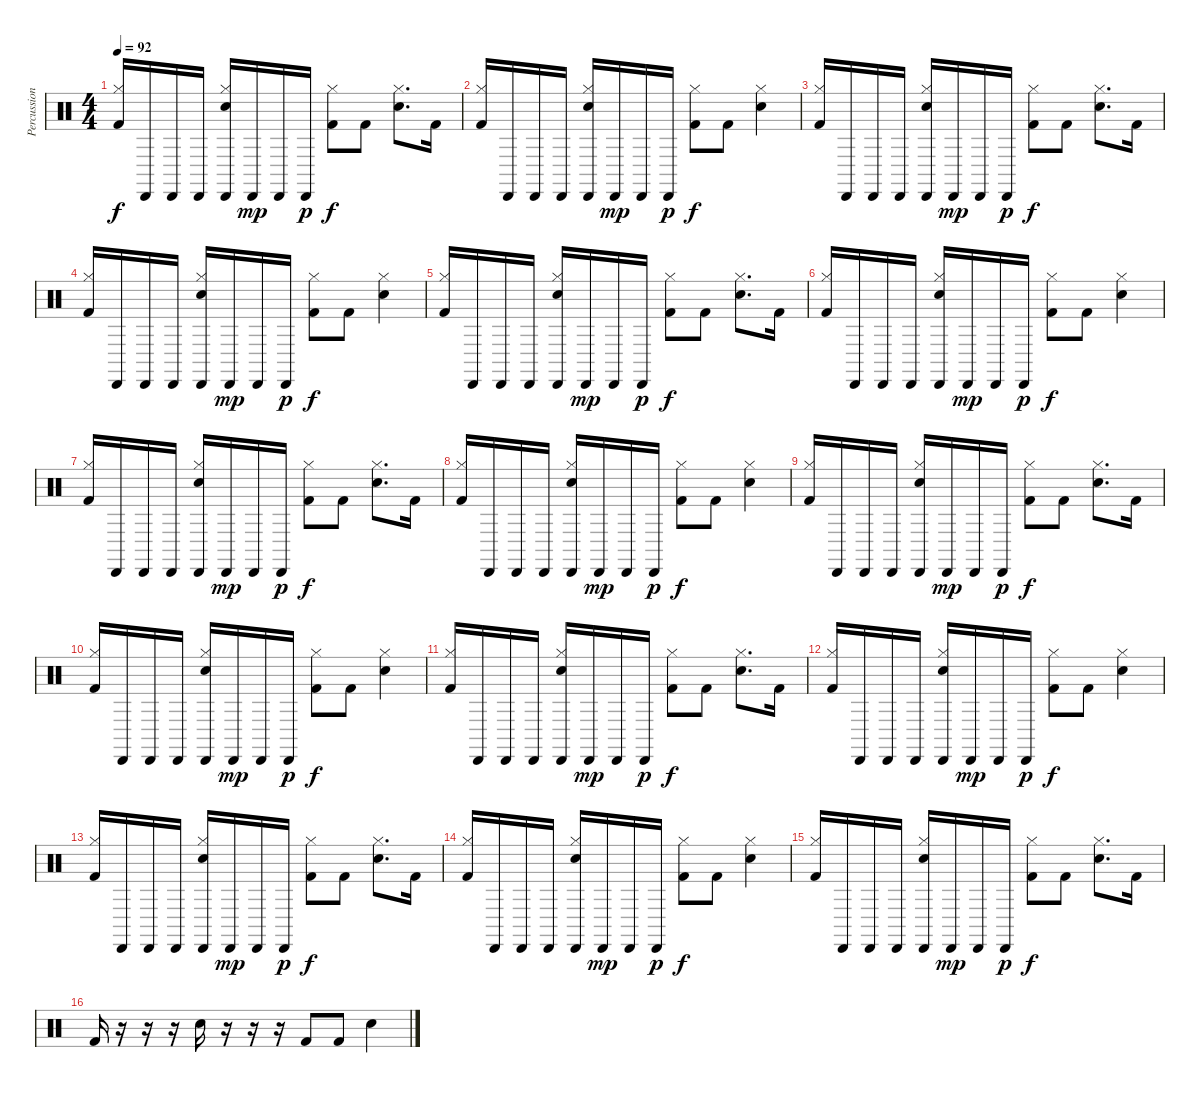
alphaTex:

\track ("Percussion" "Percussion") {instrument percussion}
\staff {score}
\articulation defaults
\ts (4 4)
\tempo 92
\clef neutral
\ks c
("Hi-Hat (closed)" "Kick (hit) 2").16{dy f} "Cabasa (hit)".16 "Cabasa (hit)".16 "Cabasa (hit)".16 ("Cabasa (hit)" "Hi-Hat (closed)" "Electric Snare (hit)").16 "Cabasa (hit)".16{dy mp} "Cabasa (hit)".16 "Cabasa (hit)".16{dy p} ("Hi-Hat (closed)" "Kick (hit) 2").8{dy f} "Kick (hit) 2".8 ("Hi-Hat (closed)" "Electric Snare (hit)").8{d} "Kick (hit) 2".16 |
("Hi-Hat (closed)" "Kick (hit) 2").16 "Cabasa (hit)".16 "Cabasa (hit)".16 "Cabasa (hit)".16 ("Cabasa (hit)" "Hi-Hat (closed)" "Electric Snare (hit)").16 "Cabasa (hit)".16{dy mp} "Cabasa (hit)".16 "Cabasa (hit)".16{dy p} ("Hi-Hat (closed)" "Kick (hit) 2").8{dy f} "Kick (hit) 2".8 ("Hi-Hat (closed)" "Electric Snare (hit)").4 |
("Hi-Hat (closed)" "Kick (hit) 2").16 "Cabasa (hit)".16 "Cabasa (hit)".16 "Cabasa (hit)".16 ("Cabasa (hit)" "Hi-Hat (closed)" "Electric Snare (hit)").16 "Cabasa (hit)".16{dy mp} "Cabasa (hit)".16 "Cabasa (hit)".16{dy p} ("Hi-Hat (closed)" "Kick (hit) 2").8{dy f} "Kick (hit) 2".8 ("Hi-Hat (closed)" "Electric Snare (hit)").8{d} "Kick (hit) 2".16 |
("Hi-Hat (closed)" "Kick (hit) 2").16 "Cabasa (hit)".16 "Cabasa (hit)".16 "Cabasa (hit)".16 ("Cabasa (hit)" "Hi-Hat (closed)" "Electric Snare (hit)").16 "Cabasa (hit)".16{dy mp} "Cabasa (hit)".16 "Cabasa (hit)".16{dy p} ("Hi-Hat (closed)" "Kick (hit) 2").8{dy f} "Kick (hit) 2".8 ("Hi-Hat (closed)" "Electric Snare (hit)").4 |
("Hi-Hat (closed)" "Kick (hit) 2").16 "Cabasa (hit)".16 "Cabasa (hit)".16 "Cabasa (hit)".16 ("Cabasa (hit)" "Hi-Hat (closed)" "Electric Snare (hit)").16 "Cabasa (hit)".16{dy mp} "Cabasa (hit)".16 "Cabasa (hit)".16{dy p} ("Hi-Hat (closed)" "Kick (hit) 2").8{dy f} "Kick (hit) 2".8 ("Hi-Hat (closed)" "Electric Snare (hit)").8{d} "Kick (hit) 2".16 |
("Hi-Hat (closed)" "Kick (hit) 2").16 "Cabasa (hit)".16 "Cabasa (hit)".16 "Cabasa (hit)".16 ("Cabasa (hit)" "Hi-Hat (closed)" "Electric Snare (hit)").16 "Cabasa (hit)".16{dy mp} "Cabasa (hit)".16 "Cabasa (hit)".16{dy p} ("Hi-Hat (closed)" "Kick (hit) 2").8{dy f} "Kick (hit) 2".8 ("Hi-Hat (closed)" "Electric Snare (hit)").4 |
("Hi-Hat (closed)" "Kick (hit) 2").16 "Cabasa (hit)".16 "Cabasa (hit)".16 "Cabasa (hit)".16 ("Cabasa (hit)" "Hi-Hat (closed)" "Electric Snare (hit)").16 "Cabasa (hit)".16{dy mp} "Cabasa (hit)".16 "Cabasa (hit)".16{dy p} ("Hi-Hat (closed)" "Kick (hit) 2").8{dy f} "Kick (hit) 2".8 ("Hi-Hat (closed)" "Electric Snare (hit)").8{d} "Kick (hit) 2".16 |
("Hi-Hat (closed)" "Kick (hit) 2").16 "Cabasa (hit)".16 "Cabasa (hit)".16 "Cabasa (hit)".16 ("Cabasa (hit)" "Hi-Hat (closed)" "Electric Snare (hit)").16 "Cabasa (hit)".16{dy mp} "Cabasa (hit)".16 "Cabasa (hit)".16{dy p} ("Hi-Hat (closed)" "Kick (hit) 2").8{dy f} "Kick (hit) 2".8 ("Hi-Hat (closed)" "Electric Snare (hit)").4 |
("Hi-Hat (closed)" "Kick (hit) 2").16 "Cabasa (hit)".16 "Cabasa (hit)".16 "Cabasa (hit)".16 ("Cabasa (hit)" "Hi-Hat (closed)" "Electric Snare (hit)").16 "Cabasa (hit)".16{dy mp} "Cabasa (hit)".16 "Cabasa (hit)".16{dy p} ("Hi-Hat (closed)" "Kick (hit) 2").8{dy f} "Kick (hit) 2".8 ("Hi-Hat (closed)" "Electric Snare (hit)").8{d} "Kick (hit) 2".16 |
("Hi-Hat (closed)" "Kick (hit) 2").16 "Cabasa (hit)".16 "Cabasa (hit)".16 "Cabasa (hit)".16 ("Cabasa (hit)" "Hi-Hat (closed)" "Electric Snare (hit)").16 "Cabasa (hit)".16{dy mp} "Cabasa (hit)".16 "Cabasa (hit)".16{dy p} ("Hi-Hat (closed)" "Kick (hit) 2").8{dy f} "Kick (hit) 2".8 ("Hi-Hat (closed)" "Electric Snare (hit)").4 |
("Hi-Hat (closed)" "Kick (hit) 2").16 "Cabasa (hit)".16 "Cabasa (hit)".16 "Cabasa (hit)".16 ("Cabasa (hit)" "Hi-Hat (closed)" "Electric Snare (hit)").16 "Cabasa (hit)".16{dy mp} "Cabasa (hit)".16 "Cabasa (hit)".16{dy p} ("Hi-Hat (closed)" "Kick (hit) 2").8{dy f} "Kick (hit) 2".8 ("Hi-Hat (closed)" "Electric Snare (hit)").8{d} "Kick (hit) 2".16 |
("Hi-Hat (closed)" "Kick (hit) 2").16 "Cabasa (hit)".16 "Cabasa (hit)".16 "Cabasa (hit)".16 ("Cabasa (hit)" "Hi-Hat (closed)" "Electric Snare (hit)").16 "Cabasa (hit)".16{dy mp} "Cabasa (hit)".16 "Cabasa (hit)".16{dy p} ("Hi-Hat (closed)" "Kick (hit) 2").8{dy f} "Kick (hit) 2".8 ("Hi-Hat (closed)" "Electric Snare (hit)").4 |
("Hi-Hat (closed)" "Kick (hit) 2").16 "Cabasa (hit)".16 "Cabasa (hit)".16 "Cabasa (hit)".16 ("Cabasa (hit)" "Hi-Hat (closed)" "Electric Snare (hit)").16 "Cabasa (hit)".16{dy mp} "Cabasa (hit)".16 "Cabasa (hit)".16{dy p} ("Hi-Hat (closed)" "Kick (hit) 2").8{dy f} "Kick (hit) 2".8 ("Hi-Hat (closed)" "Electric Snare (hit)").8{d} "Kick (hit) 2".16 |
("Hi-Hat (closed)" "Kick (hit) 2").16 "Cabasa (hit)".16 "Cabasa (hit)".16 "Cabasa (hit)".16 ("Cabasa (hit)" "Hi-Hat (closed)" "Electric Snare (hit)").16 "Cabasa (hit)".16{dy mp} "Cabasa (hit)".16 "Cabasa (hit)".16{dy p} ("Hi-Hat (closed)" "Kick (hit) 2").8{dy f} "Kick (hit) 2".8 ("Hi-Hat (closed)" "Electric Snare (hit)").4 |
("Hi-Hat (closed)" "Kick (hit) 2").16 "Cabasa (hit)".16 "Cabasa (hit)".16 "Cabasa (hit)".16 ("Cabasa (hit)" "Hi-Hat (closed)" "Electric Snare (hit)").16 "Cabasa (hit)".16{dy mp} "Cabasa (hit)".16 "Cabasa (hit)".16{dy p} ("Hi-Hat (closed)" "Kick (hit) 2").8{dy f} "Kick (hit) 2".8 ("Hi-Hat (closed)" "Electric Snare (hit)").8{d} "Kick (hit) 2".16 |
"Kick (hit) 2".16 r.16 r.16 r.16 "Electric Snare (hit)".16 r.16 r.16 r.16 "Kick (hit) 2".8 "Kick (hit) 2".8 "Electric Snare (hit)".4
